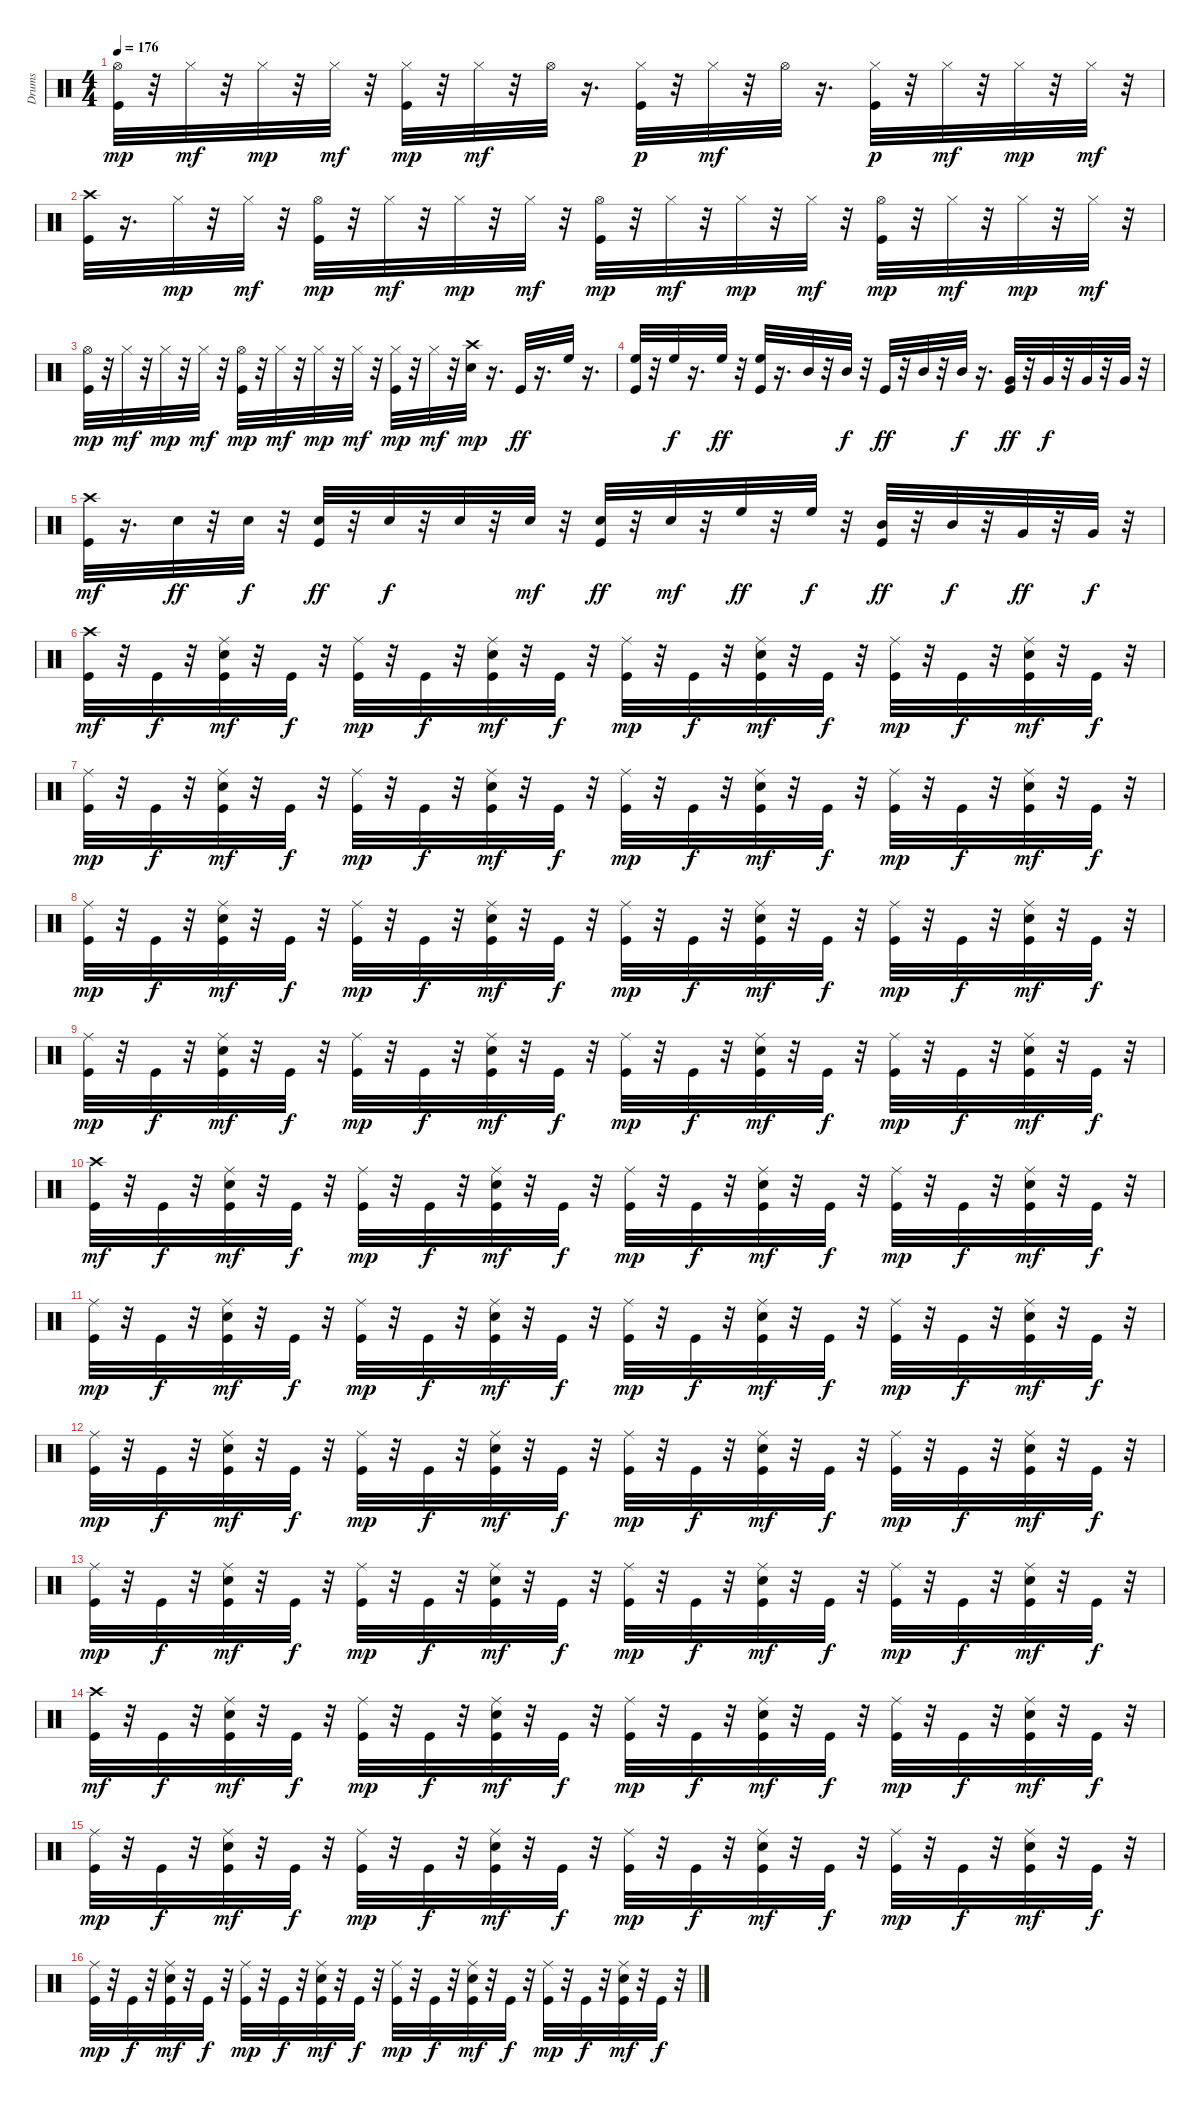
\track ("Drums" "Drums") {instrument percussion}
\staff {score}
\articulation defaults
\ts (4 4)
\tempo 176
\clef neutral
\ks c
("Kick (hit)" "Hi-Hat (open)").32{dy mp} r.32 "Hi-Hat (closed)".32{dy mf} r.32 "Hi-Hat (closed)".32{dy mp} r.32 "Hi-Hat (closed)".32{dy mf} r.32 ("Kick (hit)" "Hi-Hat (closed)").32{dy mp} r.32 "Hi-Hat (closed)".32{dy mf} r.32 "Hi-Hat (open)".32 r.16{d} ("Kick (hit)" "Hi-Hat (closed)").32{dy p} r.32 "Hi-Hat (closed)".32{dy mf} r.32 "Hi-Hat (open)".32 r.16{d} ("Kick (hit)" "Hi-Hat (closed)").32{dy p} r.32 "Hi-Hat (closed)".32{dy mf} r.32 "Hi-Hat (closed)".32{dy mp} r.32 "Hi-Hat (closed)".32{dy mf} r.32 |
("Kick (hit)" "Crash high (hit)").32 r.16{d} "Hi-Hat (closed)".32{dy mp} r.32 "Hi-Hat (closed)".32{dy mf} r.32 ("Kick (hit)" "Hi-Hat (open)").32{dy mp} r.32 "Hi-Hat (closed)".32{dy mf} r.32 "Hi-Hat (closed)".32{dy mp} r.32 "Hi-Hat (closed)".32{dy mf} r.32 ("Kick (hit)" "Hi-Hat (open)").32{dy mp} r.32 "Hi-Hat (closed)".32{dy mf} r.32 "Hi-Hat (closed)".32{dy mp} r.32 "Hi-Hat (closed)".32{dy mf} r.32 ("Kick (hit)" "Hi-Hat (open)").32{dy mp} r.32 "Hi-Hat (closed)".32{dy mf} r.32 "Hi-Hat (closed)".32{dy mp} r.32 "Hi-Hat (closed)".32{dy mf} r.32 |
("Kick (hit)" "Hi-Hat (open)").32{dy mp} r.32 "Hi-Hat (closed)".32{dy mf} r.32 "Hi-Hat (closed)".32{dy mp} r.32 "Hi-Hat (closed)".32{dy mf} r.32 ("Kick (hit)" "Hi-Hat (open)").32{dy mp} r.32 "Hi-Hat (closed)".32{dy mf} r.32 "Hi-Hat (closed)".32{dy mp} r.32 "Hi-Hat (closed)".32{dy mf} r.32 ("Kick (hit)" "Hi-Hat (closed)").32{dy mp} r.32 "Hi-Hat (closed)".32{dy mf} r.32 ("Snare (hit) 2" "Crash high (hit)").32{dy mp} r.16{d} "Kick (hit)".32{dy ff} r.16{d} "High Floor Tom (hit)".32 r.16{d} |
("Kick (hit)" "High Floor Tom (hit)").32 r.32 "High Floor Tom (hit)".32{dy f} r.16{d} "High Floor Tom (hit)".32{dy ff} r.32 ("Kick (hit)" "High Floor Tom (hit)").32 r.16{d} "Mid Tom (hit)".32 r.32 "Mid Tom (hit)".32{dy f} r.32 "Kick (hit)".32{dy ff} r.32 "Mid Tom (hit)".32 r.32 "Mid Tom (hit)".32{dy f} r.16{d} ("Kick (hit)" "Very Low Tom (hit)").32{dy ff} r.32 "Very Low Tom (hit)".32{dy f} r.32 "Very Low Tom (hit)".32 r.32 "Very Low Tom (hit)".32 r.32 |
("Kick (hit)" "Crash high (hit)").32{dy mf} r.16{d} "Snare (hit) 2".32{dy ff} r.32 "Snare (hit) 2".32{dy f} r.32 ("Kick (hit)" "Snare (hit) 2").32{dy ff} r.32 "Snare (hit) 2".32{dy f} r.32 "Snare (hit) 2".32 r.32 "Snare (hit) 2".32{dy mf} r.32 ("Kick (hit)" "Snare (hit) 2").32{dy ff} r.32 "Snare (hit) 2".32{dy mf} r.32 "High Floor Tom (hit)".32{dy ff} r.32 "High Floor Tom (hit)".32{dy f} r.32 ("Kick (hit)" "Mid Tom (hit)").32{dy ff} r.32 "Mid Tom (hit)".32{dy f} r.32 "Very Low Tom (hit)".32{dy ff} r.32 "Very Low Tom (hit)".32{dy f} r.32 |
("Kick (hit)" "Crash high (hit)").32{dy mf} r.32 "Kick (hit)".32{dy f} r.32 ("Kick (hit)" "Snare (hit) 2" "Ride (middle)").32{dy mf} r.32 "Kick (hit)".32{dy f} r.32 ("Kick (hit)" "Ride (middle)").32{dy mp} r.32 "Kick (hit)".32{dy f} r.32 ("Kick (hit)" "Snare (hit) 2" "Ride (middle)").32{dy mf} r.32 "Kick (hit)".32{dy f} r.32 ("Kick (hit)" "Ride (middle)").32{dy mp} r.32 "Kick (hit)".32{dy f} r.32 ("Kick (hit)" "Snare (hit) 2" "Ride (middle)").32{dy mf} r.32 "Kick (hit)".32{dy f} r.32 ("Kick (hit)" "Ride (middle)").32{dy mp} r.32 "Kick (hit)".32{dy f} r.32 ("Kick (hit)" "Snare (hit) 2" "Ride (middle)").32{dy mf} r.32 "Kick (hit)".32{dy f} r.32 |
("Kick (hit)" "Ride (middle)").32{dy mp} r.32 "Kick (hit)".32{dy f} r.32 ("Kick (hit)" "Snare (hit) 2" "Ride (middle)").32{dy mf} r.32 "Kick (hit)".32{dy f} r.32 ("Kick (hit)" "Ride (middle)").32{dy mp} r.32 "Kick (hit)".32{dy f} r.32 ("Kick (hit)" "Snare (hit) 2" "Ride (middle)").32{dy mf} r.32 "Kick (hit)".32{dy f} r.32 ("Kick (hit)" "Ride (middle)").32{dy mp} r.32 "Kick (hit)".32{dy f} r.32 ("Kick (hit)" "Snare (hit) 2" "Ride (middle)").32{dy mf} r.32 "Kick (hit)".32{dy f} r.32 ("Kick (hit)" "Ride (middle)").32{dy mp} r.32 "Kick (hit)".32{dy f} r.32 ("Kick (hit)" "Snare (hit) 2" "Ride (middle)").32{dy mf} r.32 "Kick (hit)".32{dy f} r.32 |
("Kick (hit)" "Ride (middle)").32{dy mp} r.32 "Kick (hit)".32{dy f} r.32 ("Kick (hit)" "Snare (hit) 2" "Ride (middle)").32{dy mf} r.32 "Kick (hit)".32{dy f} r.32 ("Kick (hit)" "Ride (middle)").32{dy mp} r.32 "Kick (hit)".32{dy f} r.32 ("Kick (hit)" "Snare (hit) 2" "Ride (middle)").32{dy mf} r.32 "Kick (hit)".32{dy f} r.32 ("Kick (hit)" "Ride (middle)").32{dy mp} r.32 "Kick (hit)".32{dy f} r.32 ("Kick (hit)" "Snare (hit) 2" "Ride (middle)").32{dy mf} r.32 "Kick (hit)".32{dy f} r.32 ("Kick (hit)" "Ride (middle)").32{dy mp} r.32 "Kick (hit)".32{dy f} r.32 ("Kick (hit)" "Snare (hit) 2" "Ride (middle)").32{dy mf} r.32 "Kick (hit)".32{dy f} r.32 |
("Kick (hit)" "Ride (middle)").32{dy mp} r.32 "Kick (hit)".32{dy f} r.32 ("Kick (hit)" "Snare (hit) 2" "Ride (middle)").32{dy mf} r.32 "Kick (hit)".32{dy f} r.32 ("Kick (hit)" "Ride (middle)").32{dy mp} r.32 "Kick (hit)".32{dy f} r.32 ("Kick (hit)" "Snare (hit) 2" "Ride (middle)").32{dy mf} r.32 "Kick (hit)".32{dy f} r.32 ("Kick (hit)" "Ride (middle)").32{dy mp} r.32 "Kick (hit)".32{dy f} r.32 ("Kick (hit)" "Snare (hit) 2" "Ride (middle)").32{dy mf} r.32 "Kick (hit)".32{dy f} r.32 ("Kick (hit)" "Ride (middle)").32{dy mp} r.32 "Kick (hit)".32{dy f} r.32 ("Kick (hit)" "Snare (hit) 2" "Ride (middle)").32{dy mf} r.32 "Kick (hit)".32{dy f} r.32 |
("Kick (hit)" "Crash high (hit)").32{dy mf} r.32 "Kick (hit)".32{dy f} r.32 ("Kick (hit)" "Snare (hit) 2" "Ride (middle)").32{dy mf} r.32 "Kick (hit)".32{dy f} r.32 ("Kick (hit)" "Ride (middle)").32{dy mp} r.32 "Kick (hit)".32{dy f} r.32 ("Kick (hit)" "Snare (hit) 2" "Ride (middle)").32{dy mf} r.32 "Kick (hit)".32{dy f} r.32 ("Kick (hit)" "Ride (middle)").32{dy mp} r.32 "Kick (hit)".32{dy f} r.32 ("Kick (hit)" "Snare (hit) 2" "Ride (middle)").32{dy mf} r.32 "Kick (hit)".32{dy f} r.32 ("Kick (hit)" "Ride (middle)").32{dy mp} r.32 "Kick (hit)".32{dy f} r.32 ("Kick (hit)" "Snare (hit) 2" "Ride (middle)").32{dy mf} r.32 "Kick (hit)".32{dy f} r.32 |
("Kick (hit)" "Ride (middle)").32{dy mp} r.32 "Kick (hit)".32{dy f} r.32 ("Kick (hit)" "Snare (hit) 2" "Ride (middle)").32{dy mf} r.32 "Kick (hit)".32{dy f} r.32 ("Kick (hit)" "Ride (middle)").32{dy mp} r.32 "Kick (hit)".32{dy f} r.32 ("Kick (hit)" "Snare (hit) 2" "Ride (middle)").32{dy mf} r.32 "Kick (hit)".32{dy f} r.32 ("Kick (hit)" "Ride (middle)").32{dy mp} r.32 "Kick (hit)".32{dy f} r.32 ("Kick (hit)" "Snare (hit) 2" "Ride (middle)").32{dy mf} r.32 "Kick (hit)".32{dy f} r.32 ("Kick (hit)" "Ride (middle)").32{dy mp} r.32 "Kick (hit)".32{dy f} r.32 ("Kick (hit)" "Snare (hit) 2" "Ride (middle)").32{dy mf} r.32 "Kick (hit)".32{dy f} r.32 |
("Kick (hit)" "Ride (middle)").32{dy mp} r.32 "Kick (hit)".32{dy f} r.32 ("Kick (hit)" "Snare (hit) 2" "Ride (middle)").32{dy mf} r.32 "Kick (hit)".32{dy f} r.32 ("Kick (hit)" "Ride (middle)").32{dy mp} r.32 "Kick (hit)".32{dy f} r.32 ("Kick (hit)" "Snare (hit) 2" "Ride (middle)").32{dy mf} r.32 "Kick (hit)".32{dy f} r.32 ("Kick (hit)" "Ride (middle)").32{dy mp} r.32 "Kick (hit)".32{dy f} r.32 ("Kick (hit)" "Snare (hit) 2" "Ride (middle)").32{dy mf} r.32 "Kick (hit)".32{dy f} r.32 ("Kick (hit)" "Ride (middle)").32{dy mp} r.32 "Kick (hit)".32{dy f} r.32 ("Kick (hit)" "Snare (hit) 2" "Ride (middle)").32{dy mf} r.32 "Kick (hit)".32{dy f} r.32 |
("Kick (hit)" "Ride (middle)").32{dy mp} r.32 "Kick (hit)".32{dy f} r.32 ("Kick (hit)" "Snare (hit) 2" "Ride (middle)").32{dy mf} r.32 "Kick (hit)".32{dy f} r.32 ("Kick (hit)" "Ride (middle)").32{dy mp} r.32 "Kick (hit)".32{dy f} r.32 ("Kick (hit)" "Snare (hit) 2" "Ride (middle)").32{dy mf} r.32 "Kick (hit)".32{dy f} r.32 ("Kick (hit)" "Ride (middle)").32{dy mp} r.32 "Kick (hit)".32{dy f} r.32 ("Kick (hit)" "Snare (hit) 2" "Ride (middle)").32{dy mf} r.32 "Kick (hit)".32{dy f} r.32 ("Kick (hit)" "Ride (middle)").32{dy mp} r.32 "Kick (hit)".32{dy f} r.32 ("Kick (hit)" "Snare (hit) 2" "Ride (middle)").32{dy mf} r.32 "Kick (hit)".32{dy f} r.32 |
("Kick (hit)" "Crash high (hit)").32{dy mf} r.32 "Kick (hit)".32{dy f} r.32 ("Kick (hit)" "Snare (hit) 2" "Ride (middle)").32{dy mf} r.32 "Kick (hit)".32{dy f} r.32 ("Kick (hit)" "Ride (middle)").32{dy mp} r.32 "Kick (hit)".32{dy f} r.32 ("Kick (hit)" "Snare (hit) 2" "Ride (middle)").32{dy mf} r.32 "Kick (hit)".32{dy f} r.32 ("Kick (hit)" "Ride (middle)").32{dy mp} r.32 "Kick (hit)".32{dy f} r.32 ("Kick (hit)" "Snare (hit) 2" "Ride (middle)").32{dy mf} r.32 "Kick (hit)".32{dy f} r.32 ("Kick (hit)" "Ride (middle)").32{dy mp} r.32 "Kick (hit)".32{dy f} r.32 ("Kick (hit)" "Snare (hit) 2" "Ride (middle)").32{dy mf} r.32 "Kick (hit)".32{dy f} r.32 |
("Kick (hit)" "Ride (middle)").32{dy mp} r.32 "Kick (hit)".32{dy f} r.32 ("Kick (hit)" "Snare (hit) 2" "Ride (middle)").32{dy mf} r.32 "Kick (hit)".32{dy f} r.32 ("Kick (hit)" "Ride (middle)").32{dy mp} r.32 "Kick (hit)".32{dy f} r.32 ("Kick (hit)" "Snare (hit) 2" "Ride (middle)").32{dy mf} r.32 "Kick (hit)".32{dy f} r.32 ("Kick (hit)" "Ride (middle)").32{dy mp} r.32 "Kick (hit)".32{dy f} r.32 ("Kick (hit)" "Snare (hit) 2" "Ride (middle)").32{dy mf} r.32 "Kick (hit)".32{dy f} r.32 ("Kick (hit)" "Ride (middle)").32{dy mp} r.32 "Kick (hit)".32{dy f} r.32 ("Kick (hit)" "Snare (hit) 2" "Ride (middle)").32{dy mf} r.32 "Kick (hit)".32{dy f} r.32 |
("Kick (hit)" "Ride (middle)").32{dy mp} r.32 "Kick (hit)".32{dy f} r.32 ("Kick (hit)" "Snare (hit) 2" "Ride (middle)").32{dy mf} r.32 "Kick (hit)".32{dy f} r.32 ("Kick (hit)" "Ride (middle)").32{dy mp} r.32 "Kick (hit)".32{dy f} r.32 ("Kick (hit)" "Snare (hit) 2" "Ride (middle)").32{dy mf} r.32 "Kick (hit)".32{dy f} r.32 ("Kick (hit)" "Ride (middle)").32{dy mp} r.32 "Kick (hit)".32{dy f} r.32 ("Kick (hit)" "Snare (hit) 2" "Ride (middle)").32{dy mf} r.32 "Kick (hit)".32{dy f} r.32 ("Kick (hit)" "Ride (middle)").32{dy mp} r.32 "Kick (hit)".32{dy f} r.32 ("Kick (hit)" "Snare (hit) 2" "Ride (middle)").32{dy mf} r.32 "Kick (hit)".32{dy f} r.32
